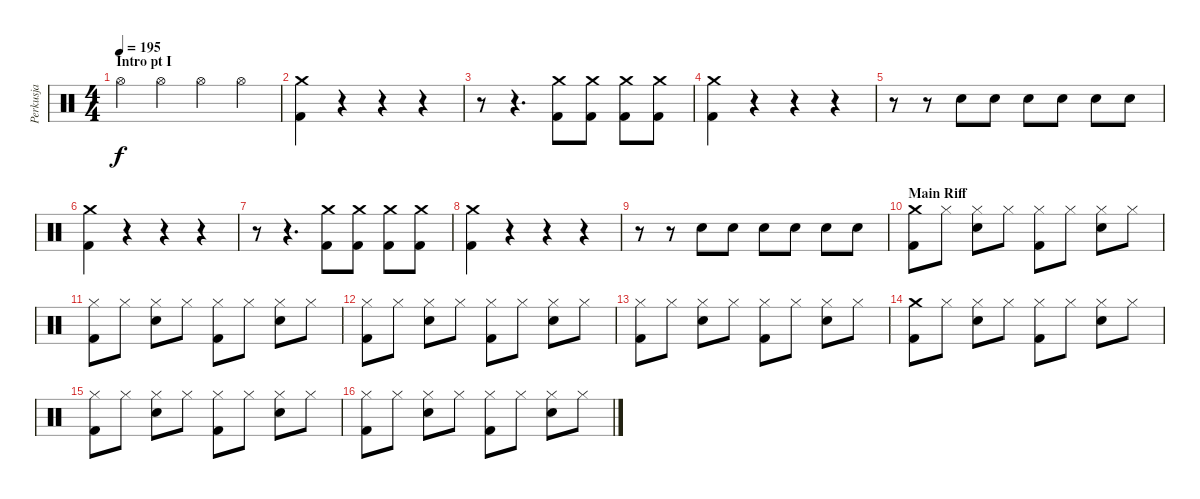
\track ("Perkusja" "Perkusja") {instrument percussion}
\staff {score}
\articulation defaults
\ts (4 4)
\section ("" "Intro pt I")
\tempo 195
\clef neutral
\ks c "Hi-Hat (open)".4{dy f} "Hi-Hat (open)".4 "Hi-Hat (open)".4 "Hi-Hat (open)".4
|
("Crash medium (hit)" "Kick (hit) 2").4 r.4 r.4 r.4 |
r.8 r.4{d} ("Crash medium (hit)" "Kick (hit) 2").8 ("Crash medium (hit)" "Kick (hit) 2").8 ("Crash medium (hit)" "Kick (hit) 2").8 ("Crash medium (hit)" "Kick (hit) 2").8 |
("Crash medium (hit)" "Kick (hit) 2").4 r.4 r.4 r.4 |
r.8 r.8 "Snare (hit) 2".8 "Snare (hit) 2".8 "Snare (hit) 2".8 "Snare (hit) 2".8 "Snare (hit) 2".8 "Snare (hit) 2".8 |
("Crash medium (hit)" "Kick (hit) 2").4 r.4 r.4 r.4 |
r.8 r.4{d} ("Crash medium (hit)" "Kick (hit) 2").8 ("Crash medium (hit)" "Kick (hit) 2").8 ("Crash medium (hit)" "Kick (hit) 2").8 ("Crash medium (hit)" "Kick (hit) 2").8 |
("Crash medium (hit)" "Kick (hit) 2").4 r.4 r.4 r.4 |
r.8 r.8 "Snare (hit) 2".8 "Snare (hit) 2".8 "Snare (hit) 2".8 "Snare (hit) 2".8 "Snare (hit) 2".8 "Snare (hit) 2".8 |
\section ("" "Main Riff")
("Crash medium (hit)" "Kick (hit) 2").8 "Hi-Hat (closed)".8 ("Hi-Hat (closed)" "Snare (hit) 2").8 "Hi-Hat (closed)".8 ("Hi-Hat (closed)" "Kick (hit) 2").8 "Hi-Hat (closed)".8 ("Hi-Hat (closed)" "Snare (hit) 2").8 "Hi-Hat (closed)".8 |
("Hi-Hat (closed)" "Kick (hit) 2").8 "Hi-Hat (closed)".8 ("Hi-Hat (closed)" "Snare (hit) 2").8 "Hi-Hat (closed)".8 ("Hi-Hat (closed)" "Kick (hit) 2").8 "Hi-Hat (closed)".8 ("Hi-Hat (closed)" "Snare (hit) 2").8 "Hi-Hat (closed)".8 |
("Hi-Hat (closed)" "Kick (hit) 2").8 "Hi-Hat (closed)".8 ("Hi-Hat (closed)" "Snare (hit) 2").8 "Hi-Hat (closed)".8 ("Hi-Hat (closed)" "Kick (hit) 2").8 "Hi-Hat (closed)".8 ("Hi-Hat (closed)" "Snare (hit) 2").8 "Hi-Hat (closed)".8 |
("Hi-Hat (closed)" "Kick (hit) 2").8 "Hi-Hat (closed)".8 ("Hi-Hat (closed)" "Snare (hit) 2").8 "Hi-Hat (closed)".8 ("Hi-Hat (closed)" "Kick (hit) 2").8 "Hi-Hat (closed)".8 ("Hi-Hat (closed)" "Snare (hit) 2").8 "Hi-Hat (closed)".8 |
("Crash medium (hit)" "Kick (hit) 2").8 "Hi-Hat (closed)".8 ("Hi-Hat (closed)" "Snare (hit) 2").8 "Hi-Hat (closed)".8 ("Hi-Hat (closed)" "Kick (hit) 2").8 "Hi-Hat (closed)".8 ("Hi-Hat (closed)" "Snare (hit) 2").8 "Hi-Hat (closed)".8 |
("Hi-Hat (closed)" "Kick (hit) 2").8 "Hi-Hat (closed)".8 ("Hi-Hat (closed)" "Snare (hit) 2").8 "Hi-Hat (closed)".8 ("Hi-Hat (closed)" "Kick (hit) 2").8 "Hi-Hat (closed)".8 ("Hi-Hat (closed)" "Snare (hit) 2").8 "Hi-Hat (closed)".8 |
("Hi-Hat (closed)" "Kick (hit) 2").8 "Hi-Hat (closed)".8 ("Hi-Hat (closed)" "Snare (hit) 2").8 "Hi-Hat (closed)".8 ("Hi-Hat (closed)" "Kick (hit) 2").8 "Hi-Hat (closed)".8 ("Hi-Hat (closed)" "Snare (hit) 2").8 "Hi-Hat (closed)".8
